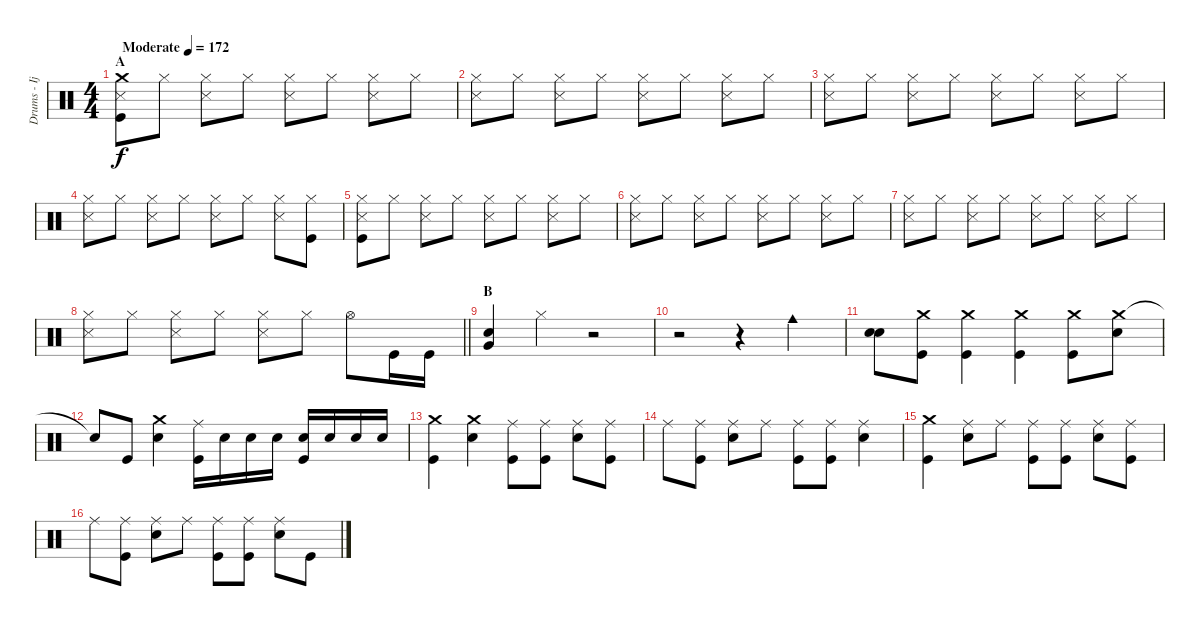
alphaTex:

\track ("Drums - Ijichi" "Drums - Ij") {instrument percussion}
\staff {score}
\articulation defaults
\ts (4 4)
\section ("" "A")
\tempo (172 "Moderate")
\clef neutral
\ks c
("Crash medium (hit)" "Snare (side stick) 3" "Kick (hit)").8{dy f} "Hi-Hat (closed)".8 ("Hi-Hat (closed)" "Snare (side stick) 3").8 "Hi-Hat (closed)".8 ("Hi-Hat (closed)" "Snare (side stick) 3").8 "Hi-Hat (closed)".8 ("Hi-Hat (closed)" "Snare (side stick) 3").8 "Hi-Hat (closed)".8 |
("Hi-Hat (closed)" "Snare (side stick) 3").8 "Hi-Hat (closed)".8 ("Hi-Hat (closed)" "Snare (side stick) 3").8 "Hi-Hat (closed)".8 ("Hi-Hat (closed)" "Snare (side stick) 3").8 "Hi-Hat (closed)".8 ("Hi-Hat (closed)" "Snare (side stick) 3").8 "Hi-Hat (closed)".8 |
("Hi-Hat (closed)" "Snare (side stick) 3").8 "Hi-Hat (closed)".8 ("Hi-Hat (closed)" "Snare (side stick) 3").8 "Hi-Hat (closed)".8 ("Hi-Hat (closed)" "Snare (side stick) 3").8 "Hi-Hat (closed)".8 ("Hi-Hat (closed)" "Snare (side stick) 3").8 "Hi-Hat (closed)".8 |
("Hi-Hat (closed)" "Snare (side stick) 3").8 "Hi-Hat (closed)".8 ("Hi-Hat (closed)" "Snare (side stick) 3").8 "Hi-Hat (closed)".8 ("Hi-Hat (closed)" "Snare (side stick) 3").8 "Hi-Hat (closed)".8 ("Hi-Hat (closed)" "Snare (side stick) 3").8 ("Hi-Hat (closed)" "Kick (hit)").8 |
("Hi-Hat (closed)" "Snare (side stick) 3" "Kick (hit)").8 "Hi-Hat (closed)".8 ("Hi-Hat (closed)" "Snare (side stick) 3").8 "Hi-Hat (closed)".8 ("Hi-Hat (closed)" "Snare (side stick) 3").8 "Hi-Hat (closed)".8 ("Hi-Hat (closed)" "Snare (side stick) 3").8 "Hi-Hat (closed)".8 |
("Hi-Hat (closed)" "Snare (side stick) 3").8 "Hi-Hat (closed)".8 ("Hi-Hat (closed)" "Snare (side stick) 3").8 "Hi-Hat (closed)".8 ("Hi-Hat (closed)" "Snare (side stick) 3").8 "Hi-Hat (closed)".8 ("Hi-Hat (closed)" "Snare (side stick) 3").8 "Hi-Hat (closed)".8 |
("Hi-Hat (closed)" "Snare (side stick) 3").8 "Hi-Hat (closed)".8 ("Hi-Hat (closed)" "Snare (side stick) 3").8 "Hi-Hat (closed)".8 ("Hi-Hat (closed)" "Snare (side stick) 3").8 "Hi-Hat (closed)".8 ("Hi-Hat (closed)" "Snare (side stick) 3").8 "Hi-Hat (closed)".8 |
\barLineRight lightlight
("Hi-Hat (closed)" "Snare (side stick) 3").8 "Hi-Hat (closed)".8 ("Hi-Hat (closed)" "Snare (side stick) 3").8 "Hi-Hat (closed)".8 ("Hi-Hat (closed)" "Snare (side stick) 3").8 "Hi-Hat (closed)".8 "Hi-Hat (open)".8 "Kick (hit)".16 "Kick (hit)".16 |
\section ("" "B")
("Electric Snare (hit)" "Very Low Tom (hit)").4 "Hi-Hat (closed)".4 r.2 |
r.2 r.4 "Cowbell medium (hit)".4 |
("Electric Snare (hit)" "Electric Snare (hit)").8 ("Crash medium (hit)" "Kick (hit)").8 ("Crash medium (hit)" "Kick (hit)").4 ("Crash medium (hit)" "Kick (hit)").4 ("Crash medium (hit)" "Kick (hit)").8 ("Crash medium (hit)" "Electric Snare (hit)").8 |
"Snare (hit)"{t}.8 "Kick (hit)".8 ("Crash medium (hit)" "Electric Snare (hit)").4 ("Ride (middle)" "Kick (hit)").16 "Electric Snare (hit)".16 "Electric Snare (hit)".16 "Electric Snare (hit)".16 ("Electric Snare (hit)" "Kick (hit)").16 "Electric Snare (hit)".16 "Electric Snare (hit)".16 "Electric Snare (hit)".16 |
("Crash medium (hit)" "Kick (hit)").4 ("Crash medium (hit)" "Electric Snare (hit)").4 ("Ride (middle)" "Kick (hit)").8 ("Ride (middle)" "Kick (hit)").8 ("Ride (middle)" "Electric Snare (hit)").8 ("Ride (middle)" "Kick (hit)").8 |
"Ride (middle)".8 ("Ride (middle)" "Kick (hit)").8 ("Ride (middle)" "Electric Snare (hit)").8 "Ride (middle)".8 ("Ride (middle)" "Kick (hit)").8 ("Ride (middle)" "Kick (hit)").8 ("Ride (middle)" "Electric Snare (hit)").4 |
("Crash medium (hit)" "Kick (hit)").4 ("Ride (middle)" "Electric Snare (hit)").8 "Ride (middle)".8 ("Ride (middle)" "Kick (hit)").8 ("Ride (middle)" "Kick (hit)").8 ("Ride (middle)" "Electric Snare (hit)").8 ("Ride (middle)" "Kick (hit)").8 |
"Ride (middle)".8 ("Ride (middle)" "Kick (hit)").8 ("Ride (middle)" "Electric Snare (hit)").8 "Ride (middle)".8 ("Ride (middle)" "Kick (hit)").8 ("Ride (middle)" "Kick (hit)").8 ("Ride (middle)" "Electric Snare (hit)").8 "Kick (hit)".8
